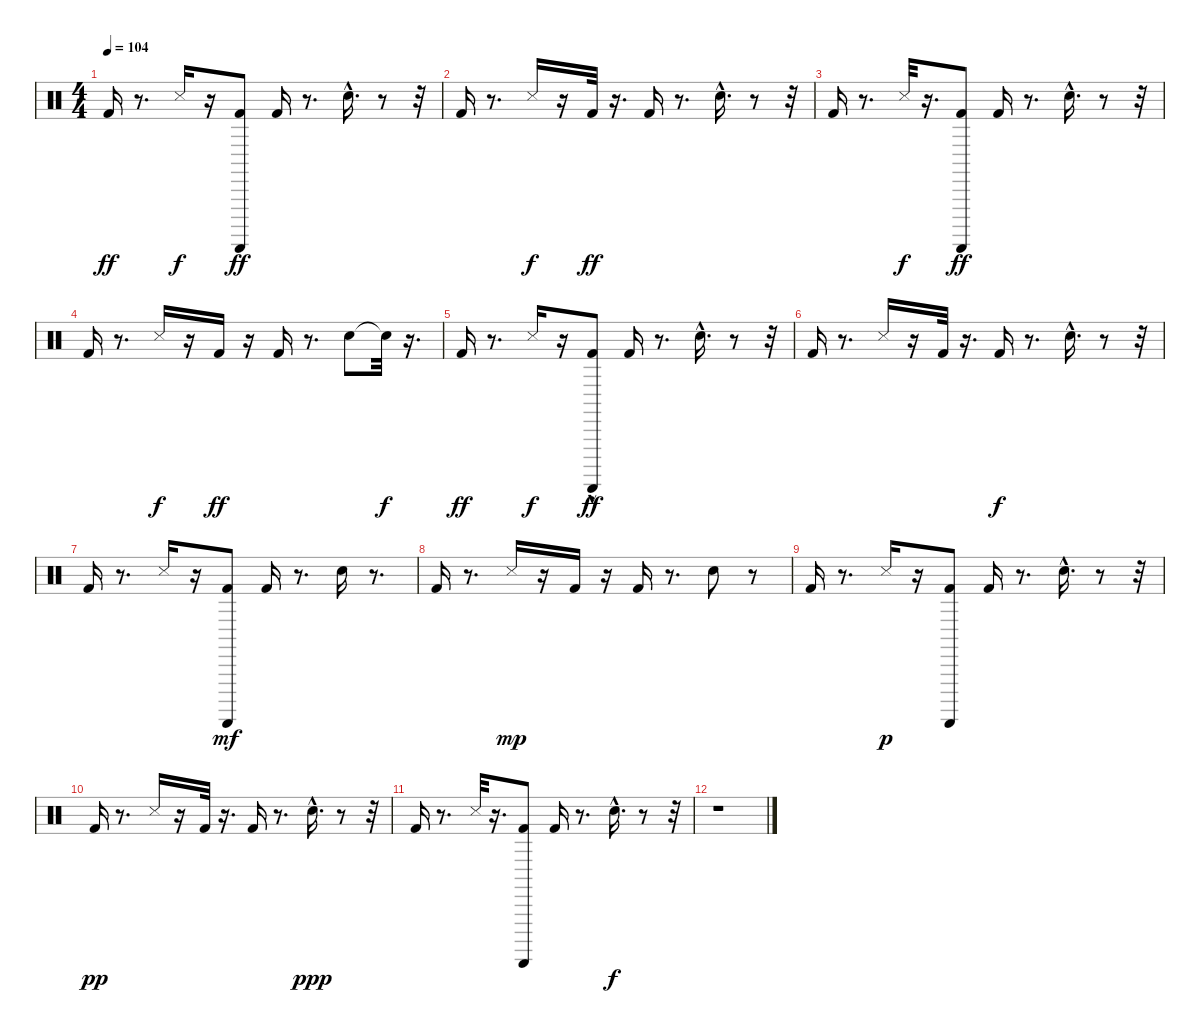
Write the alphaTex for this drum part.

\track "" {instrument percussion}
\staff {score}
\articulation defaults
\ts (4 4)
\tempo 104
\clef neutral
\ks c "Kick (hit) 2".16{dy ff}
r.8{d} "Snare (side stick) 3".16{dy f} r.16 ("Guiro (scrap-return)" "Kick (hit) 2").8{dy ff} "Kick (hit) 2".16 r.8{d} "Snare (hit) 2"{hac}.16{d} r.8 r.32 |
"Kick (hit) 2".16 r.8{d} "Snare (side stick) 3".16{dy f} r.16 "Kick (hit) 2".32{dy ff} r.16{d} "Kick (hit) 2".16 r.8{d} "Snare (hit) 2"{hac}.16{d} r.8 r.32 |
"Kick (hit) 2".16 r.8{d} "Snare (side stick) 3".32{dy f} r.16{d} ("Guiro (scrap-return)" "Kick (hit) 2").8{dy ff} "Kick (hit) 2".16 r.8{d} "Snare (hit) 2"{hac}.16{d} r.8 r.32 |
"Kick (hit) 2".16 r.8{d} "Snare (side stick) 3".16{dy f} r.16 "Kick (hit) 2".16{dy ff} r.16 "Kick (hit) 2".16 r.8{d} "Snare (hit) 2".8 "Snare (hit)"{t}.32{dy f} r.16{d} |
"Kick (hit) 2".16{dy ff} r.8{d} "Snare (side stick) 3".16{dy f} r.16 ("Guiro (scrap-return)"{hac} "Kick (hit) 2").8{dy ff} "Kick (hit) 2".16 r.8{d} "Snare (hit) 2"{hac}.16{d} r.8 r.32 |
"Kick (hit) 2".16 r.8{d} "Snare (side stick) 3".16 r.16 "Kick (hit) 2".32 r.16{d} "Kick (hit) 2".16{dy f} r.8{d} "Snare (hit) 2"{hac}.16{d} r.8 r.32 |
"Kick (hit) 2".16 r.8{d} "Snare (side stick) 3".16 r.16 ("Guiro (scrap-return)" "Kick (hit) 2").8{dy mf} "Kick (hit) 2".16 r.8{d} "Snare (hit) 2".16 r.8{d} |
"Kick (hit) 2".16 r.8{d} "Snare (side stick) 3".16{dy mp} r.16 "Kick (hit) 2".16 r.16 "Kick (hit) 2".16 r.8{d} "Snare (hit) 2".8 r.8 |
"Kick (hit) 2".16 r.8{d} "Snare (side stick) 3".16{dy p} r.16 ("Guiro (scrap-return)" "Kick (hit) 2").8 "Kick (hit) 2".16 r.8{d} "Snare (hit) 2"{hac}.16{d} r.8 r.32 |
"Kick (hit) 2".16{dy pp} r.8{d} "Snare (side stick) 3".16 r.16 "Kick (hit) 2".32 r.16{d} "Kick (hit) 2".16 r.8{d} "Snare (hit) 2"{hac}.16{d dy ppp} r.8 r.32 |
"Kick (hit) 2".16 r.8{d} "Snare (side stick) 3".32 r.16{d} ("Guiro (scrap-return)" "Kick (hit) 2").8 "Kick (hit) 2".16 r.8{d} "Snare (hit) 2"{hac}.16{d dy f} r.8 r.32 |
r.1
